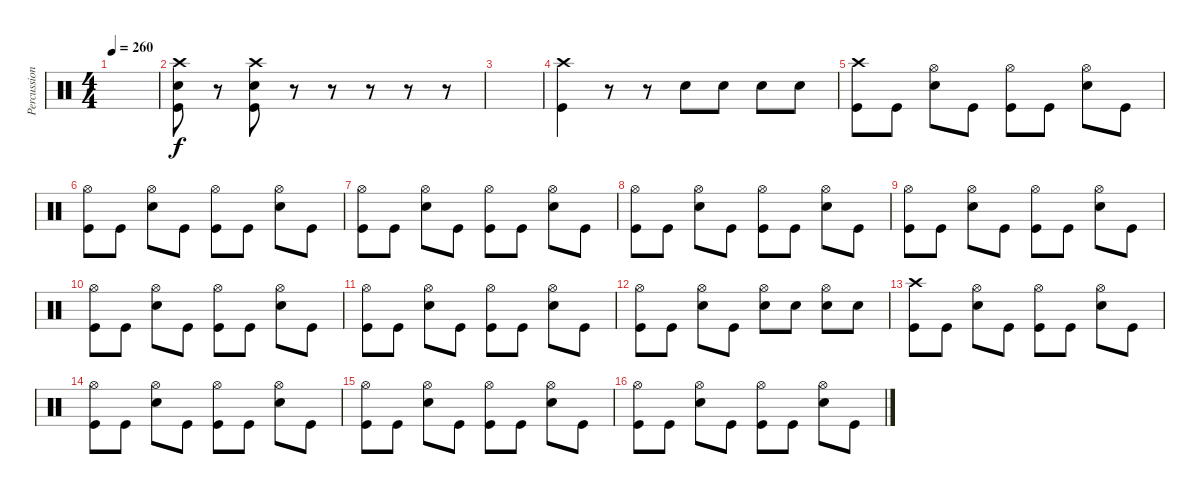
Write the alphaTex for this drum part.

\track ("Percussion" "Percussion") {instrument percussion}
\staff {score}
\articulation defaults
\ts (4 4)
\tempo 260
\clef neutral
\ks c
|
("Crash high (hit)" "Kick (hit)" "Snare (hit) 2").8 r.8 ("Crash high (hit)" "Kick (hit)" "Snare (hit) 2").8 r.8 r.8 r.8 r.8 r.8 |
|
("Crash high (hit)" "Kick (hit)").4 r.8 r.8 "Snare (hit) 2".8 "Snare (hit) 2".8 "Snare (hit) 2".8 "Snare (hit) 2".8 |
("Crash high (hit)" "Kick (hit)").8 "Kick (hit)".8 ("Hi-Hat (open)" "Snare (hit) 2").8 "Kick (hit)".8 ("Hi-Hat (open)" "Kick (hit)").8 "Kick (hit)".8 ("Hi-Hat (open)" "Snare (hit) 2").8 "Kick (hit)".8 |
("Hi-Hat (open)" "Kick (hit)").8 "Kick (hit)".8 ("Hi-Hat (open)" "Snare (hit) 2").8 "Kick (hit)".8 ("Hi-Hat (open)" "Kick (hit)").8 "Kick (hit)".8 ("Hi-Hat (open)" "Snare (hit) 2").8 "Kick (hit)".8 |
("Hi-Hat (open)" "Kick (hit)").8 "Kick (hit)".8 ("Hi-Hat (open)" "Snare (hit) 2").8 "Kick (hit)".8 ("Hi-Hat (open)" "Kick (hit)").8 "Kick (hit)".8 ("Hi-Hat (open)" "Snare (hit) 2").8 "Kick (hit)".8 |
("Hi-Hat (open)" "Kick (hit)").8 "Kick (hit)".8 ("Hi-Hat (open)" "Snare (hit) 2").8 "Kick (hit)".8 ("Hi-Hat (open)" "Kick (hit)").8 "Kick (hit)".8 ("Hi-Hat (open)" "Snare (hit) 2").8 "Kick (hit)".8 |
("Hi-Hat (open)" "Kick (hit)").8 "Kick (hit)".8 ("Hi-Hat (open)" "Snare (hit) 2").8 "Kick (hit)".8 ("Hi-Hat (open)" "Kick (hit)").8 "Kick (hit)".8 ("Hi-Hat (open)" "Snare (hit) 2").8 "Kick (hit)".8 |
("Hi-Hat (open)" "Kick (hit)").8 "Kick (hit)".8 ("Hi-Hat (open)" "Snare (hit) 2").8 "Kick (hit)".8 ("Hi-Hat (open)" "Kick (hit)").8 "Kick (hit)".8 ("Hi-Hat (open)" "Snare (hit) 2").8 "Kick (hit)".8 |
("Hi-Hat (open)" "Kick (hit)").8 "Kick (hit)".8 ("Hi-Hat (open)" "Snare (hit) 2").8 "Kick (hit)".8 ("Hi-Hat (open)" "Kick (hit)").8 "Kick (hit)".8 ("Hi-Hat (open)" "Snare (hit) 2").8 "Kick (hit)".8 |
("Hi-Hat (open)" "Kick (hit)").8 "Kick (hit)".8 ("Hi-Hat (open)" "Snare (hit) 2").8 "Kick (hit)".8 ("Hi-Hat (open)" "Snare (hit) 2").8 "Snare (hit) 2".8 ("Hi-Hat (open)" "Snare (hit) 2").8 "Snare (hit) 2".8 |
("Crash high (hit)" "Kick (hit)").8 "Kick (hit)".8 ("Hi-Hat (open)" "Snare (hit) 2").8 "Kick (hit)".8 ("Hi-Hat (open)" "Kick (hit)").8 "Kick (hit)".8 ("Hi-Hat (open)" "Snare (hit) 2").8 "Kick (hit)".8 |
("Hi-Hat (open)" "Kick (hit)").8 "Kick (hit)".8 ("Hi-Hat (open)" "Snare (hit) 2").8 "Kick (hit)".8 ("Hi-Hat (open)" "Kick (hit)").8 "Kick (hit)".8 ("Hi-Hat (open)" "Snare (hit) 2").8 "Kick (hit)".8 |
("Hi-Hat (open)" "Kick (hit)").8 "Kick (hit)".8 ("Hi-Hat (open)" "Snare (hit) 2").8 "Kick (hit)".8 ("Hi-Hat (open)" "Kick (hit)").8 "Kick (hit)".8 ("Hi-Hat (open)" "Snare (hit) 2").8 "Kick (hit)".8 |
("Hi-Hat (open)" "Kick (hit)").8 "Kick (hit)".8 ("Hi-Hat (open)" "Snare (hit) 2").8 "Kick (hit)".8 ("Hi-Hat (open)" "Kick (hit)").8 "Kick (hit)".8 ("Hi-Hat (open)" "Snare (hit) 2").8 "Kick (hit)".8
